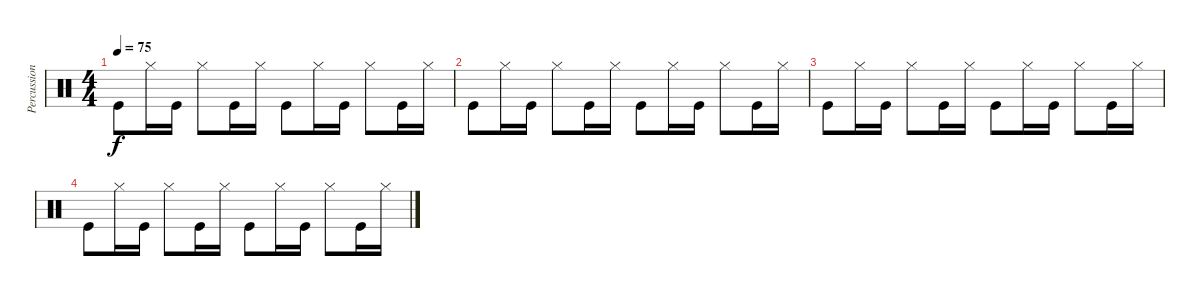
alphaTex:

\track ("Percussions" "Percussion") {instrument percussion}
\staff {score}
\articulation defaults
\ts (4 4)
\tempo 75
\clef neutral
\ks c "Kick (hit)".8{dy f} "Hi-Hat (closed)".16 "Kick (hit)".16 "Hi-Hat (closed)".8 "Kick (hit)".16 "Hi-Hat (closed)".16 "Kick (hit)".8 "Hi-Hat (closed)".16 "Kick (hit)".16 "Hi-Hat (closed)".8 "Kick (hit)".16 "Hi-Hat (closed)".16
|
"Kick (hit)".8 "Hi-Hat (closed)".16 "Kick (hit)".16 "Hi-Hat (closed)".8 "Kick (hit)".16 "Hi-Hat (closed)".16 "Kick (hit)".8 "Hi-Hat (closed)".16 "Kick (hit)".16 "Hi-Hat (closed)".8 "Kick (hit)".16 "Hi-Hat (closed)".16 |
"Kick (hit)".8 "Hi-Hat (closed)".16 "Kick (hit)".16 "Hi-Hat (closed)".8 "Kick (hit)".16 "Hi-Hat (closed)".16 "Kick (hit)".8 "Hi-Hat (closed)".16 "Kick (hit)".16 "Hi-Hat (closed)".8 "Kick (hit)".16 "Hi-Hat (closed)".16 |
"Kick (hit)".8 "Hi-Hat (closed)".16 "Kick (hit)".16 "Hi-Hat (closed)".8 "Kick (hit)".16 "Hi-Hat (closed)".16 "Kick (hit)".8 "Hi-Hat (closed)".16 "Kick (hit)".16 "Hi-Hat (closed)".8 "Kick (hit)".16 "Hi-Hat (closed)".16
